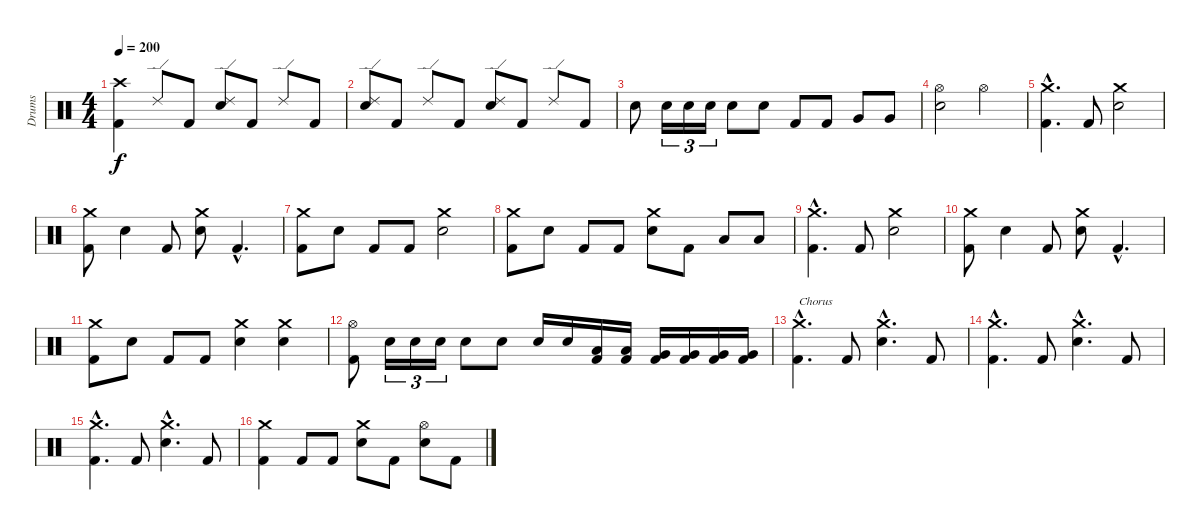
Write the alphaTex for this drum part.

\track ("Drums" "Drums") {instrument percussion}
\staff {score}
\articulation defaults
\ts (4 4)
\tempo 200
\clef neutral
\ks c
("Crash high (hit)" "Kick (hit) 2").4{dy f} "Ride (edge) 2".8 "Kick (hit) 2".8 ("Ride (edge) 2" "Electric Snare (hit)").8 "Kick (hit) 2".8 "Ride (edge) 2".8 "Kick (hit) 2".8 |
("Ride (edge) 2" "Electric Snare (hit)").8 "Kick (hit) 2".8 "Ride (edge) 2".8 "Kick (hit) 2".8 ("Ride (edge) 2" "Electric Snare (hit)").8 "Kick (hit) 2".8 "Ride (edge) 2".8 "Kick (hit) 2".8 |
"Electric Snare (hit)".8 "Electric Snare (hit)".16{tu (3 2)} "Electric Snare (hit)".16{tu (3 2)} "Electric Snare (hit)".16{tu (3 2)} "Electric Snare (hit)".8 "Electric Snare (hit)".8 "Kick (hit) 2".8 "Kick (hit) 2".8 "Very Low Tom (hit)".8 "Very Low Tom (hit)".8 |
("Hi-Hat (open)" "Electric Snare (hit)").2 "Hi-Hat (open)".2 |
("Crash medium (hit)"{hac} "Kick (hit) 2"{hac}).4{d} "Kick (hit) 2".8 ("Crash medium (hit)" "Electric Snare (hit)").2 |
("Crash medium (hit)" "Kick (hit) 2").8 "Electric Snare (hit)".4 "Kick (hit) 2".8 ("Crash medium (hit)" "Electric Snare (hit)").8 "Kick (hit) 2"{hac}.4{d} |
("Crash medium (hit)" "Kick (hit) 2").8 "Electric Snare (hit)".8 "Kick (hit) 2".8 "Kick (hit) 2".8 ("Crash medium (hit)" "Electric Snare (hit)").2 |
("Crash medium (hit)" "Kick (hit) 2").8 "Electric Snare (hit)".8 "Kick (hit) 2".8 "Kick (hit) 2".8 ("Crash medium (hit)" "Electric Snare (hit)").8 "Kick (hit) 2".8 "Low Tom (hit)".8 "Low Tom (hit)".8 |
("Crash medium (hit)"{hac} "Kick (hit) 2"{hac}).4{d} "Kick (hit) 2".8 ("Crash medium (hit)" "Electric Snare (hit)").2 |
("Crash medium (hit)" "Kick (hit) 2").8 "Electric Snare (hit)".4 "Kick (hit) 2".8 ("Crash medium (hit)" "Electric Snare (hit)").8 "Kick (hit) 2"{hac}.4{d} |
("Crash medium (hit)" "Kick (hit) 2").8 "Electric Snare (hit)".8 "Kick (hit) 2".8 "Kick (hit) 2".8 ("Crash medium (hit)" "Electric Snare (hit)").4 ("Crash medium (hit)" "Electric Snare (hit)").4 |
("Hi-Hat (open)" "Kick (hit) 2").8 "Electric Snare (hit)".16{tu (3 2)} "Electric Snare (hit)".16{tu (3 2)} "Electric Snare (hit)".16{tu (3 2)} "Electric Snare (hit)".8 "Electric Snare (hit)".8 "Electric Snare (hit)".16 "Electric Snare (hit)".16 ("Low Tom (hit)" "Kick (hit) 2").16 ("Low Tom (hit)" "Kick (hit) 2").16 ("Very Low Tom (hit)" "Kick (hit) 2").16 ("Very Low Tom (hit)" "Kick (hit) 2").16 ("Very Low Tom (hit)" "Kick (hit) 2").16 ("Very Low Tom (hit)" "Kick (hit) 2").16 |
("Crash medium (hit)"{hac} "Kick (hit) 2"{hac}).4{d txt "Chorus"} "Kick (hit) 2".8 ("Crash medium (hit)"{hac} "Electric Snare (hit)"{hac}).4{d} "Kick (hit) 2".8 |
("Crash medium (hit)"{hac} "Kick (hit) 2"{hac}).4{d} "Kick (hit) 2".8 ("Crash medium (hit)"{hac} "Electric Snare (hit)"{hac}).4{d} "Kick (hit) 2".8 |
("Crash medium (hit)"{hac} "Kick (hit) 2"{hac}).4{d} "Kick (hit) 2".8 ("Crash medium (hit)"{hac} "Electric Snare (hit)"{hac}).4{d} "Kick (hit) 2".8 |
("Crash medium (hit)" "Kick (hit) 2").4 "Kick (hit) 2".8 "Kick (hit) 2".8 ("Crash medium (hit)" "Electric Snare (hit)").8 "Kick (hit) 2".8 ("Hi-Hat (open)" "Electric Snare (hit)").8 "Kick (hit) 2".8
